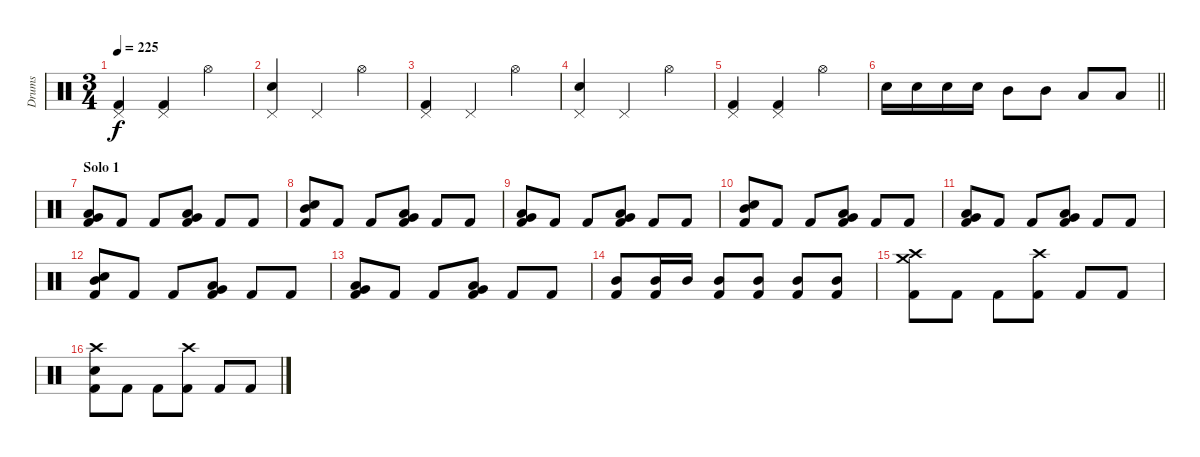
\track ("Drums" "Drums") {instrument percussion}
\staff {score}
\articulation defaults
\ts (3 4)
\tempo 225
\clef neutral
\ks c
("Pedal Hi-Hat (hit)" "Kick (hit) 2").4{dy f} ("Pedal Hi-Hat (hit)" "Kick (hit) 2").4 "Hi-Hat (open)".4 |
("Pedal Hi-Hat (hit)" "Electric Snare (hit)").4 "Pedal Hi-Hat (hit)".4 "Hi-Hat (open)".4 |
("Pedal Hi-Hat (hit)" "Kick (hit) 2").4 "Pedal Hi-Hat (hit)".4 "Hi-Hat (open)".4 |
("Pedal Hi-Hat (hit)" "Electric Snare (hit)").4 "Pedal Hi-Hat (hit)".4 "Hi-Hat (open)".4 |
("Pedal Hi-Hat (hit)" "Kick (hit) 2").4 ("Pedal Hi-Hat (hit)" "Kick (hit) 2").4 "Hi-Hat (open)".4 |
\barLineRight lightlight "Electric Snare (hit)".16 "Electric Snare (hit)".16 "Electric Snare (hit)".16 "Electric Snare (hit)".16 "Mid Tom (hit)".8 "Mid Tom (hit)".8 "Low Tom (hit)".8 "Low Tom (hit)".8
|
\section ("" "Solo 1")
("Very Low Tom (hit)" "Low Floor Tom (hit)" "Kick (hit) 2").8 "Kick (hit) 2".8 "Kick (hit) 2".8 ("Low Tom (hit)" "Very Low Tom (hit)" "Kick (hit) 2").8 "Kick (hit) 2".8 "Kick (hit) 2".8 |
("Mid Tom (hit)" "Electric Snare (hit)" "Kick (hit) 2").8 "Kick (hit) 2".8 "Kick (hit) 2".8 ("Low Tom (hit)" "Very Low Tom (hit)" "Kick (hit) 2").8 "Kick (hit) 2".8 "Kick (hit) 2".8 |
("Very Low Tom (hit)" "Low Floor Tom (hit)" "Kick (hit) 2").8 "Kick (hit) 2".8 "Kick (hit) 2".8 ("Low Tom (hit)" "Very Low Tom (hit)" "Kick (hit) 2").8 "Kick (hit) 2".8 "Kick (hit) 2".8 |
("Mid Tom (hit)" "Electric Snare (hit)" "Kick (hit) 2").8 "Kick (hit) 2".8 "Kick (hit) 2".8 ("Low Tom (hit)" "Very Low Tom (hit)" "Kick (hit) 2").8 "Kick (hit) 2".8 "Kick (hit) 2".8 |
("Very Low Tom (hit)" "Low Floor Tom (hit)" "Kick (hit) 2").8 "Kick (hit) 2".8 "Kick (hit) 2".8 ("Low Tom (hit)" "Very Low Tom (hit)" "Kick (hit) 2").8 "Kick (hit) 2".8 "Kick (hit) 2".8 |
("Mid Tom (hit)" "Electric Snare (hit)" "Kick (hit) 2").8 "Kick (hit) 2".8 "Kick (hit) 2".8 ("Low Tom (hit)" "Very Low Tom (hit)" "Kick (hit) 2").8 "Kick (hit) 2".8 "Kick (hit) 2".8 |
("Very Low Tom (hit)" "Low Floor Tom (hit)" "Kick (hit) 2").8 "Kick (hit) 2".8 "Kick (hit) 2".8 ("Low Tom (hit)" "Very Low Tom (hit)" "Kick (hit) 2").8 "Kick (hit) 2".8 "Kick (hit) 2".8 |
("Mid Tom (hit)" "Kick (hit) 2").8 ("Mid Tom (hit)" "Kick (hit) 2").16 "Mid Tom (hit)".16 ("Mid Tom (hit)" "Kick (hit) 2").8 ("Mid Tom (hit)" "Kick (hit) 2").8 ("Mid Tom (hit)" "Kick (hit) 2").8 ("Mid Tom (hit)" "Kick (hit) 2").8 |
("Crash high (hit)" "Crash medium (hit)" "Kick (hit) 2").8 "Kick (hit) 2".8 "Kick (hit) 2".8 ("Crash high (hit)" "Kick (hit) 2").8 "Kick (hit) 2".8 "Kick (hit) 2".8 |
("Crash high (hit)" "Electric Snare (hit)" "Kick (hit) 2").8 "Kick (hit) 2".8 "Kick (hit) 2".8 ("Crash high (hit)" "Kick (hit) 2").8 "Kick (hit) 2".8 "Kick (hit) 2".8
